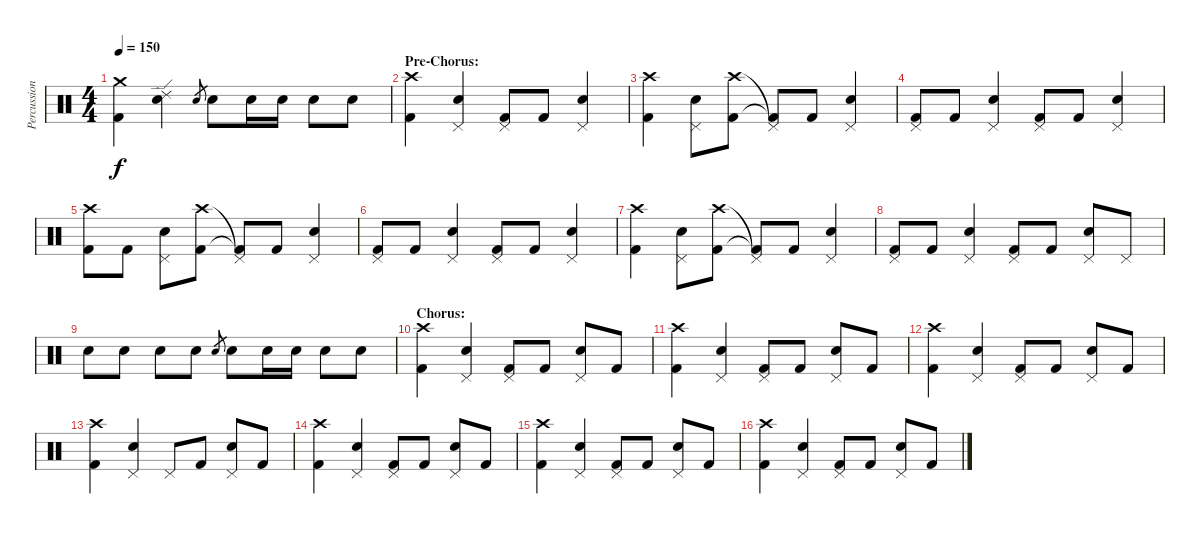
\track ("Percussion" "Percussion") {instrument percussion}
\staff {score}
\articulation defaults
\ts (4 4)
\tempo 150
\clef neutral
\ks c
("Crash medium (hit)" "Kick (hit) 2").4{dy f} ("Ride (edge) 2" "Snare (hit) 2").4 "Snare (hit) 2".8{gr} "Snare (hit) 2".8 "Snare (hit) 2".16 "Snare (hit) 2".16 "Snare (hit) 2".8 "Snare (hit) 2".8 |
\section ("" "Pre-Chorus:")
("Crash high (hit)" "Kick (hit) 2").4 ("Pedal Hi-Hat (hit)" "Snare (hit) 2").4 ("Pedal Hi-Hat (hit)" "Kick (hit) 2").8 "Kick (hit) 2".8 ("Pedal Hi-Hat (hit)" "Snare (hit) 2").4 |
("Crash high (hit)" "Kick (hit) 2").4 ("Pedal Hi-Hat (hit)" "Snare (hit) 2").8 ("Crash high (hit)" "Kick (hit) 2").8 ("Pedal Hi-Hat (hit)"{t} "Kick (hit) 2"{t}).8 "Kick (hit) 2".8 ("Pedal Hi-Hat (hit)" "Snare (hit) 2").4 |
("Pedal Hi-Hat (hit)" "Kick (hit) 2").8 "Kick (hit) 2".8 ("Pedal Hi-Hat (hit)" "Snare (hit) 2").4 ("Pedal Hi-Hat (hit)" "Kick (hit) 2").8 "Kick (hit) 2".8 ("Pedal Hi-Hat (hit)" "Snare (hit) 2").4 |
("Crash high (hit)" "Kick (hit) 2").8 "Kick (hit) 2".8 ("Pedal Hi-Hat (hit)" "Snare (hit) 2").8 ("Crash high (hit)" "Kick (hit) 2").8 ("Pedal Hi-Hat (hit)"{t} "Kick (hit) 2"{t}).8 "Kick (hit) 2".8 ("Pedal Hi-Hat (hit)" "Snare (hit) 2").4 |
("Pedal Hi-Hat (hit)" "Kick (hit) 2").8 "Kick (hit) 2".8 ("Pedal Hi-Hat (hit)" "Snare (hit) 2").4 ("Pedal Hi-Hat (hit)" "Kick (hit) 2").8 "Kick (hit) 2".8 ("Pedal Hi-Hat (hit)" "Snare (hit) 2").4 |
("Crash high (hit)" "Kick (hit) 2").4 ("Pedal Hi-Hat (hit)" "Snare (hit) 2").8 ("Crash high (hit)" "Kick (hit) 2").8 ("Pedal Hi-Hat (hit)"{t} "Kick (hit) 2"{t}).8 "Kick (hit) 2".8 ("Pedal Hi-Hat (hit)" "Snare (hit) 2").4 |
("Pedal Hi-Hat (hit)" "Kick (hit) 2").8 "Kick (hit) 2".8 ("Pedal Hi-Hat (hit)" "Snare (hit) 2").4 ("Pedal Hi-Hat (hit)" "Kick (hit) 2").8 "Kick (hit) 2".8 ("Pedal Hi-Hat (hit)" "Snare (hit) 2").8 "Pedal Hi-Hat (hit)".8 |
"Snare (hit) 2".8 "Snare (hit) 2".8 "Snare (hit) 2".8 "Snare (hit) 2".8 "Snare (hit) 2".8{gr} "Snare (hit) 2".8 "Snare (hit) 2".16 "Snare (hit) 2".16 "Snare (hit) 2".8 "Snare (hit) 2".8 |
\section ("" "Chorus:")
("Crash high (hit)" "Kick (hit) 2").4 ("Pedal Hi-Hat (hit)" "Snare (hit) 2").4 ("Pedal Hi-Hat (hit)" "Kick (hit) 2").8 "Kick (hit) 2".8 ("Pedal Hi-Hat (hit)" "Snare (hit) 2").8 "Kick (hit) 2".8 |
("Crash high (hit)" "Kick (hit) 2").4 ("Pedal Hi-Hat (hit)" "Snare (hit) 2").4 ("Pedal Hi-Hat (hit)" "Kick (hit) 2").8 "Kick (hit) 2".8 ("Pedal Hi-Hat (hit)" "Snare (hit) 2").8 "Kick (hit) 2".8 |
("Crash high (hit)" "Kick (hit) 2").4 ("Pedal Hi-Hat (hit)" "Snare (hit) 2").4 ("Pedal Hi-Hat (hit)" "Kick (hit) 2").8 "Kick (hit) 2".8 ("Pedal Hi-Hat (hit)" "Snare (hit) 2").8 "Kick (hit) 2".8 |
("Crash high (hit)" "Kick (hit) 2").4 ("Pedal Hi-Hat (hit)" "Snare (hit) 2").4 "Pedal Hi-Hat (hit)".8 "Kick (hit) 2".8 ("Pedal Hi-Hat (hit)" "Snare (hit) 2").8 "Kick (hit) 2".8 |
("Crash high (hit)" "Kick (hit) 2").4 ("Pedal Hi-Hat (hit)" "Snare (hit) 2").4 ("Pedal Hi-Hat (hit)" "Kick (hit) 2").8 "Kick (hit) 2".8 ("Pedal Hi-Hat (hit)" "Snare (hit) 2").8 "Kick (hit) 2".8 |
("Crash high (hit)" "Kick (hit) 2").4 ("Pedal Hi-Hat (hit)" "Snare (hit) 2").4 ("Pedal Hi-Hat (hit)" "Kick (hit) 2").8 "Kick (hit) 2".8 ("Pedal Hi-Hat (hit)" "Snare (hit) 2").8 "Kick (hit) 2".8 |
("Crash high (hit)" "Kick (hit) 2").4 ("Pedal Hi-Hat (hit)" "Snare (hit) 2").4 ("Pedal Hi-Hat (hit)" "Kick (hit) 2").8 "Kick (hit) 2".8 ("Pedal Hi-Hat (hit)" "Snare (hit) 2").8 "Kick (hit) 2".8
